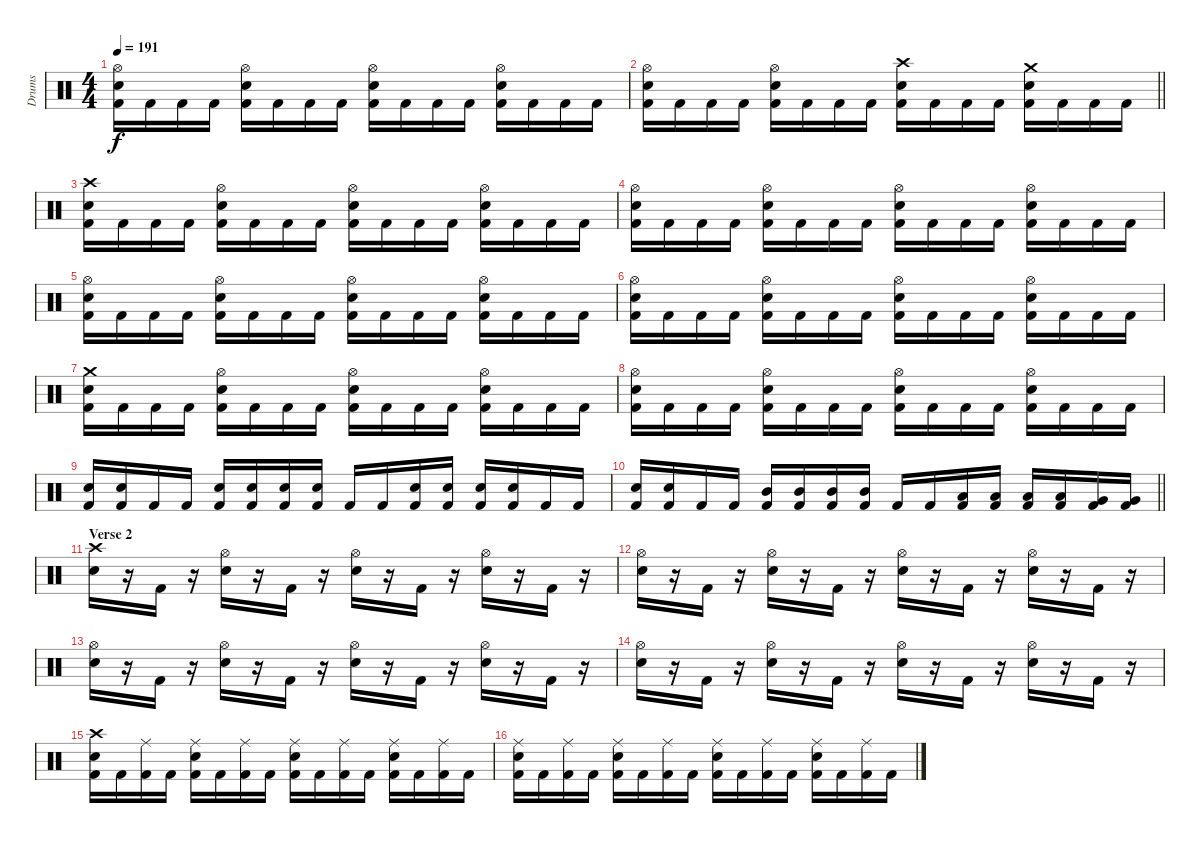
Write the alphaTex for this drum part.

\track ("Drums" "Drums") {instrument percussion}
\staff {score}
\articulation defaults
\ts (4 4)
\tempo 191
\clef neutral
\ks c
("Hi-Hat (open)" "Snare (hit) 2" "Kick (hit) 2").16{dy f} "Kick (hit) 2".16 "Kick (hit) 2".16 "Kick (hit) 2".16 ("Hi-Hat (open)" "Snare (hit) 2" "Kick (hit) 2").16 "Kick (hit) 2".16 "Kick (hit) 2".16 "Kick (hit) 2".16 ("Hi-Hat (open)" "Snare (hit) 2" "Kick (hit) 2").16 "Kick (hit) 2".16 "Kick (hit) 2".16 "Kick (hit) 2".16 ("Hi-Hat (open)" "Snare (hit) 2" "Kick (hit) 2").16 "Kick (hit) 2".16 "Kick (hit) 2".16 "Kick (hit) 2".16 |
\barLineRight lightlight
("Hi-Hat (open)" "Snare (hit) 2" "Kick (hit) 2").16 "Kick (hit) 2".16 "Kick (hit) 2".16 "Kick (hit) 2".16 ("Hi-Hat (open)" "Snare (hit) 2" "Kick (hit) 2").16 "Kick (hit) 2".16 "Kick (hit) 2".16 "Kick (hit) 2".16 ("Crash high (hit)" "Snare (hit) 2" "Kick (hit) 2").16 "Kick (hit) 2".16 "Kick (hit) 2".16 "Kick (hit) 2".16 ("Crash medium (hit)" "Snare (hit) 2" "Kick (hit) 2").16 "Kick (hit) 2".16 "Kick (hit) 2".16 "Kick (hit) 2".16 |
\section ("" "")
("Crash high (hit)" "Snare (hit) 2" "Kick (hit) 2").16 "Kick (hit) 2".16 "Kick (hit) 2".16 "Kick (hit) 2".16 ("Hi-Hat (open)" "Snare (hit) 2" "Kick (hit) 2").16 "Kick (hit) 2".16 "Kick (hit) 2".16 "Kick (hit) 2".16 ("Hi-Hat (open)" "Snare (hit) 2" "Kick (hit) 2").16 "Kick (hit) 2".16 "Kick (hit) 2".16 "Kick (hit) 2".16 ("Hi-Hat (open)" "Snare (hit) 2" "Kick (hit) 2").16 "Kick (hit) 2".16 "Kick (hit) 2".16 "Kick (hit) 2".16 |
("Hi-Hat (open)" "Snare (hit) 2" "Kick (hit) 2").16 "Kick (hit) 2".16 "Kick (hit) 2".16 "Kick (hit) 2".16 ("Hi-Hat (open)" "Snare (hit) 2" "Kick (hit) 2").16 "Kick (hit) 2".16 "Kick (hit) 2".16 "Kick (hit) 2".16 ("Hi-Hat (open)" "Snare (hit) 2" "Kick (hit) 2").16 "Kick (hit) 2".16 "Kick (hit) 2".16 "Kick (hit) 2".16 ("Hi-Hat (open)" "Snare (hit) 2" "Kick (hit) 2").16 "Kick (hit) 2".16 "Kick (hit) 2".16 "Kick (hit) 2".16 |
("Hi-Hat (open)" "Snare (hit) 2" "Kick (hit) 2").16 "Kick (hit) 2".16 "Kick (hit) 2".16 "Kick (hit) 2".16 ("Hi-Hat (open)" "Snare (hit) 2" "Kick (hit) 2").16 "Kick (hit) 2".16 "Kick (hit) 2".16 "Kick (hit) 2".16 ("Hi-Hat (open)" "Snare (hit) 2" "Kick (hit) 2").16 "Kick (hit) 2".16 "Kick (hit) 2".16 "Kick (hit) 2".16 ("Hi-Hat (open)" "Snare (hit) 2" "Kick (hit) 2").16 "Kick (hit) 2".16 "Kick (hit) 2".16 "Kick (hit) 2".16 |
("Hi-Hat (open)" "Snare (hit) 2" "Kick (hit) 2").16 "Kick (hit) 2".16 "Kick (hit) 2".16 "Kick (hit) 2".16 ("Hi-Hat (open)" "Snare (hit) 2" "Kick (hit) 2").16 "Kick (hit) 2".16 "Kick (hit) 2".16 "Kick (hit) 2".16 ("Hi-Hat (open)" "Snare (hit) 2" "Kick (hit) 2").16 "Kick (hit) 2".16 "Kick (hit) 2".16 "Kick (hit) 2".16 ("Hi-Hat (open)" "Snare (hit) 2" "Kick (hit) 2").16 "Kick (hit) 2".16 "Kick (hit) 2".16 "Kick (hit) 2".16 |
("Crash medium (hit)" "Snare (hit) 2" "Kick (hit) 2").16 "Kick (hit) 2".16 "Kick (hit) 2".16 "Kick (hit) 2".16 ("Hi-Hat (open)" "Snare (hit) 2" "Kick (hit) 2").16 "Kick (hit) 2".16 "Kick (hit) 2".16 "Kick (hit) 2".16 ("Hi-Hat (open)" "Snare (hit) 2" "Kick (hit) 2").16 "Kick (hit) 2".16 "Kick (hit) 2".16 "Kick (hit) 2".16 ("Hi-Hat (open)" "Snare (hit) 2" "Kick (hit) 2").16 "Kick (hit) 2".16 "Kick (hit) 2".16 "Kick (hit) 2".16 |
("Hi-Hat (open)" "Snare (hit) 2" "Kick (hit) 2").16 "Kick (hit) 2".16 "Kick (hit) 2".16 "Kick (hit) 2".16 ("Hi-Hat (open)" "Snare (hit) 2" "Kick (hit) 2").16 "Kick (hit) 2".16 "Kick (hit) 2".16 "Kick (hit) 2".16 ("Hi-Hat (open)" "Snare (hit) 2" "Kick (hit) 2").16 "Kick (hit) 2".16 "Kick (hit) 2".16 "Kick (hit) 2".16 ("Hi-Hat (open)" "Snare (hit) 2" "Kick (hit) 2").16 "Kick (hit) 2".16 "Kick (hit) 2".16 "Kick (hit) 2".16 |
("Snare (hit) 2" "Kick (hit) 2").16 ("Snare (hit) 2" "Kick (hit) 2").16 "Kick (hit) 2".16 "Kick (hit) 2".16 ("Snare (hit) 2" "Kick (hit) 2").16 ("Snare (hit) 2" "Kick (hit) 2").16 ("Snare (hit) 2" "Kick (hit) 2").16 ("Snare (hit) 2" "Kick (hit) 2").16 "Kick (hit) 2".16 "Kick (hit) 2".16 ("Snare (hit) 2" "Kick (hit) 2").16 ("Snare (hit) 2" "Kick (hit) 2").16 ("Snare (hit) 2" "Kick (hit) 2").16 ("Snare (hit) 2" "Kick (hit) 2").16 "Kick (hit) 2".16 "Kick (hit) 2".16 |
\barLineRight lightlight
("Snare (hit) 2" "Kick (hit) 2").16 ("Snare (hit) 2" "Kick (hit) 2").16 "Kick (hit) 2".16 "Kick (hit) 2".16 ("Mid Tom (hit)" "Kick (hit) 2").16 ("Mid Tom (hit)" "Kick (hit) 2").16 ("Mid Tom (hit)" "Kick (hit) 2").16 ("Mid Tom (hit)" "Kick (hit) 2").16 "Kick (hit) 2".16 "Kick (hit) 2".16 ("Low Tom (hit)" "Kick (hit) 2").16 ("Low Tom (hit)" "Kick (hit) 2").16 ("Low Tom (hit)" "Kick (hit) 2").16 ("Low Tom (hit)" "Kick (hit) 2").16 ("Very Low Tom (hit)" "Kick (hit) 2").16 ("Very Low Tom (hit)" "Kick (hit) 2").16 |
\section ("" "Verse 2")
("Crash high (hit)" "Snare (hit) 2").16 r.16 "Kick (hit) 2".16 r.16 ("Hi-Hat (open)" "Snare (hit) 2").16 r.16 "Kick (hit) 2".16 r.16 ("Hi-Hat (open)" "Snare (hit) 2").16 r.16 "Kick (hit) 2".16 r.16 ("Hi-Hat (open)" "Snare (hit) 2").16 r.16 "Kick (hit) 2".16 r.16 |
("Hi-Hat (open)" "Snare (hit) 2").16 r.16 "Kick (hit) 2".16 r.16 ("Hi-Hat (open)" "Snare (hit) 2").16 r.16 "Kick (hit) 2".16 r.16 ("Hi-Hat (open)" "Snare (hit) 2").16 r.16 "Kick (hit) 2".16 r.16 ("Hi-Hat (open)" "Snare (hit) 2").16 r.16 "Kick (hit) 2".16 r.16 |
("Hi-Hat (open)" "Snare (hit) 2").16 r.16 "Kick (hit) 2".16 r.16 ("Hi-Hat (open)" "Snare (hit) 2").16 r.16 "Kick (hit) 2".16 r.16 ("Hi-Hat (open)" "Snare (hit) 2").16 r.16 "Kick (hit) 2".16 r.16 ("Hi-Hat (open)" "Snare (hit) 2").16 r.16 "Kick (hit) 2".16 r.16 |
("Hi-Hat (open)" "Snare (hit) 2").16 r.16 "Kick (hit) 2".16 r.16 ("Hi-Hat (open)" "Snare (hit) 2").16 r.16 "Kick (hit) 2".16 r.16 ("Hi-Hat (open)" "Snare (hit) 2").16 r.16 "Kick (hit) 2".16 r.16 ("Hi-Hat (open)" "Snare (hit) 2").16 r.16 "Kick (hit) 2".16 r.16 |
("Crash high (hit)" "Snare (hit) 2" "Kick (hit) 2").16 "Kick (hit) 2".16 ("Ride (middle)" "Kick (hit) 2").16 "Kick (hit) 2".16 ("Ride (middle)" "Snare (hit) 2" "Kick (hit) 2").16 "Kick (hit) 2".16 ("Ride (middle)" "Kick (hit) 2").16 "Kick (hit) 2".16 ("Ride (middle)" "Snare (hit) 2" "Kick (hit) 2").16 "Kick (hit) 2".16 ("Ride (middle)" "Kick (hit) 2").16 "Kick (hit) 2".16 ("Ride (middle)" "Snare (hit) 2" "Kick (hit) 2").16 "Kick (hit) 2".16 ("Ride (middle)" "Kick (hit) 2").16 "Kick (hit) 2".16 |
("Ride (middle)" "Snare (hit) 2" "Kick (hit) 2").16 "Kick (hit) 2".16 ("Ride (middle)" "Kick (hit) 2").16 "Kick (hit) 2".16 ("Ride (middle)" "Snare (hit) 2" "Kick (hit) 2").16 "Kick (hit) 2".16 ("Ride (middle)" "Kick (hit) 2").16 "Kick (hit) 2".16 ("Ride (middle)" "Snare (hit) 2" "Kick (hit) 2").16 "Kick (hit) 2".16 ("Ride (middle)" "Kick (hit) 2").16 "Kick (hit) 2".16 ("Ride (middle)" "Snare (hit) 2" "Kick (hit) 2").16 "Kick (hit) 2".16 ("Ride (middle)" "Kick (hit) 2").16 "Kick (hit) 2".16
